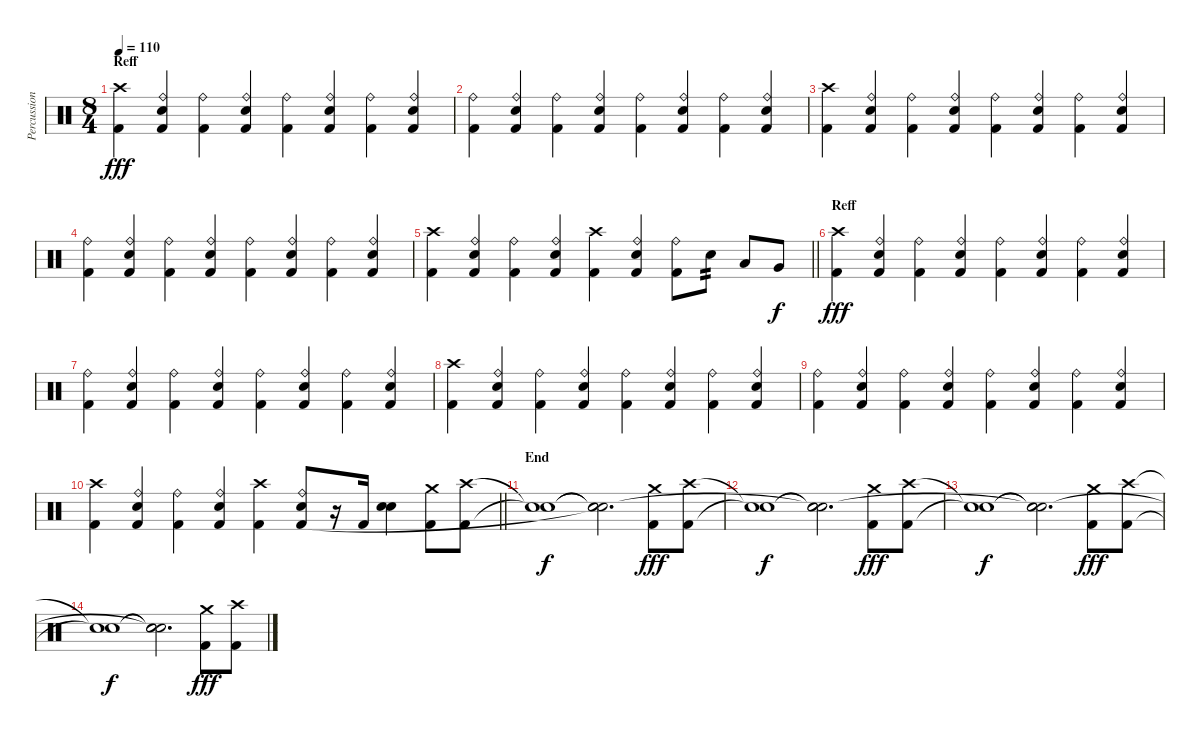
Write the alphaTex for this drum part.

\track ("Percussion" "Percussion") {instrument percussion}
\staff {score}
\articulation defaults
\ts (8 4)
\section ("" "Reff")
\tempo 110
\clef neutral
\ks c
("Crash high (hit)" "Kick (hit) 2").4{dy fff} ("Ride (bell)" "Electric Snare (hit)" "Kick (hit) 2").4 ("Ride (bell)" "Kick (hit) 2").4 ("Ride (bell)" "Electric Snare (hit)" "Kick (hit) 2").4 ("Ride (bell)" "Kick (hit) 2").4 ("Ride (bell)" "Electric Snare (hit)" "Kick (hit) 2").4 ("Ride (bell)" "Kick (hit) 2").4 ("Ride (bell)" "Electric Snare (hit)" "Kick (hit) 2").4 |
("Ride (bell)" "Kick (hit) 2").4 ("Ride (bell)" "Electric Snare (hit)" "Kick (hit) 2").4 ("Ride (bell)" "Kick (hit) 2").4 ("Ride (bell)" "Electric Snare (hit)" "Kick (hit) 2").4 ("Ride (bell)" "Kick (hit) 2").4 ("Ride (bell)" "Electric Snare (hit)" "Kick (hit) 2").4 ("Ride (bell)" "Kick (hit) 2").4 ("Ride (bell)" "Electric Snare (hit)" "Kick (hit) 2").4 |
("Crash high (hit)" "Kick (hit) 2").4 ("Ride (bell)" "Electric Snare (hit)" "Kick (hit) 2").4 ("Ride (bell)" "Kick (hit) 2").4 ("Ride (bell)" "Electric Snare (hit)" "Kick (hit) 2").4 ("Ride (bell)" "Kick (hit) 2").4 ("Ride (bell)" "Electric Snare (hit)" "Kick (hit) 2").4 ("Ride (bell)" "Kick (hit) 2").4 ("Ride (bell)" "Electric Snare (hit)" "Kick (hit) 2").4 |
("Ride (bell)" "Kick (hit) 2").4 ("Ride (bell)" "Electric Snare (hit)" "Kick (hit) 2").4 ("Ride (bell)" "Kick (hit) 2").4 ("Ride (bell)" "Electric Snare (hit)" "Kick (hit) 2").4 ("Ride (bell)" "Kick (hit) 2").4 ("Ride (bell)" "Electric Snare (hit)" "Kick (hit) 2").4 ("Ride (bell)" "Kick (hit) 2").4 ("Ride (bell)" "Electric Snare (hit)" "Kick (hit) 2").4 |
\barLineRight lightlight
("Crash high (hit)" "Kick (hit) 2").4 ("Ride (bell)" "Electric Snare (hit)" "Kick (hit) 2").4 ("Ride (bell)" "Kick (hit) 2").4 ("Ride (bell)" "Electric Snare (hit)" "Kick (hit) 2").4 ("Crash high (hit)" "Kick (hit) 2").4 ("Ride (bell)" "Electric Snare (hit)" "Kick (hit) 2").4 ("Ride (bell)" "Kick (hit) 2").8 "Electric Snare (hit)".8{tp 2} "Low Tom (hit)".8 "Very Low Tom (hit)".8{dy f} |
\section ("" "Reff")
("Crash high (hit)" "Kick (hit) 2").4{dy fff} ("Ride (bell)" "Electric Snare (hit)" "Kick (hit) 2").4 ("Ride (bell)" "Kick (hit) 2").4 ("Ride (bell)" "Electric Snare (hit)" "Kick (hit) 2").4 ("Ride (bell)" "Kick (hit) 2").4 ("Ride (bell)" "Electric Snare (hit)" "Kick (hit) 2").4 ("Ride (bell)" "Kick (hit) 2").4 ("Ride (bell)" "Electric Snare (hit)" "Kick (hit) 2").4 |
("Ride (bell)" "Kick (hit) 2").4 ("Ride (bell)" "Electric Snare (hit)" "Kick (hit) 2").4 ("Ride (bell)" "Kick (hit) 2").4 ("Ride (bell)" "Electric Snare (hit)" "Kick (hit) 2").4 ("Ride (bell)" "Kick (hit) 2").4 ("Ride (bell)" "Electric Snare (hit)" "Kick (hit) 2").4 ("Ride (bell)" "Kick (hit) 2").4 ("Ride (bell)" "Electric Snare (hit)" "Kick (hit) 2").4 |
("Crash high (hit)" "Kick (hit) 2").4 ("Ride (bell)" "Electric Snare (hit)" "Kick (hit) 2").4 ("Ride (bell)" "Kick (hit) 2").4 ("Ride (bell)" "Electric Snare (hit)" "Kick (hit) 2").4 ("Ride (bell)" "Kick (hit) 2").4 ("Ride (bell)" "Electric Snare (hit)" "Kick (hit) 2").4 ("Ride (bell)" "Kick (hit) 2").4 ("Ride (bell)" "Electric Snare (hit)" "Kick (hit) 2").4 |
("Ride (bell)" "Kick (hit) 2").4 ("Ride (bell)" "Electric Snare (hit)" "Kick (hit) 2").4 ("Ride (bell)" "Kick (hit) 2").4 ("Ride (bell)" "Electric Snare (hit)" "Kick (hit) 2").4 ("Ride (bell)" "Kick (hit) 2").4 ("Ride (bell)" "Electric Snare (hit)" "Kick (hit) 2").4 ("Ride (bell)" "Kick (hit) 2").4 ("Ride (bell)" "Electric Snare (hit)" "Kick (hit) 2").4 |
\barLineRight lightlight
("Crash high (hit)" "Kick (hit) 2").4 ("Ride (bell)" "Electric Snare (hit)" "Kick (hit) 2").4 ("Ride (bell)" "Kick (hit) 2").4 ("Ride (bell)" "Electric Snare (hit)" "Kick (hit) 2").4 ("Crash high (hit)" "Kick (hit) 2").4 ("Ride (bell)" "Electric Snare (hit)" "Kick (hit) 2").8 r.16 "Kick (hit) 2".16 ("Electric Snare (hit)" "Electric Snare (hit)").4 ("Crash medium (hit)" "Kick (hit) 2").8 ("Crash high (hit)" "Kick (hit) 2").8 |
\section ("" "End")
("Snare (hit)"{t} "Snare (hit)"{t}).1{dy f} ("Snare (hit)"{t} "Snare (hit)"{t} "Snare (hit)"{t}).2{d} ("Crash medium (hit)" "Kick (hit) 2").8{dy fff} ("Crash high (hit)" "Kick (hit) 2").8 |
("Snare (hit)"{t} "Snare (hit)"{t}).1{dy f} ("Snare (hit)"{t} "Snare (hit)"{t} "Snare (hit)"{t}).2{d} ("Crash medium (hit)" "Kick (hit) 2").8{dy fff} ("Crash high (hit)" "Kick (hit) 2").8 |
("Snare (hit)"{t} "Snare (hit)"{t}).1{dy f} ("Snare (hit)"{t} "Snare (hit)"{t} "Snare (hit)"{t}).2{d} ("Crash medium (hit)" "Kick (hit) 2").8{dy fff} ("Crash high (hit)" "Kick (hit) 2").8 |
("Snare (hit)"{t} "Snare (hit)"{t}).1{dy f} ("Snare (hit)"{t} "Snare (hit)"{t} "Snare (hit)"{t}).2{d} ("Crash medium (hit)" "Kick (hit) 2").8{dy fff} ("Crash high (hit)" "Kick (hit) 2").8
